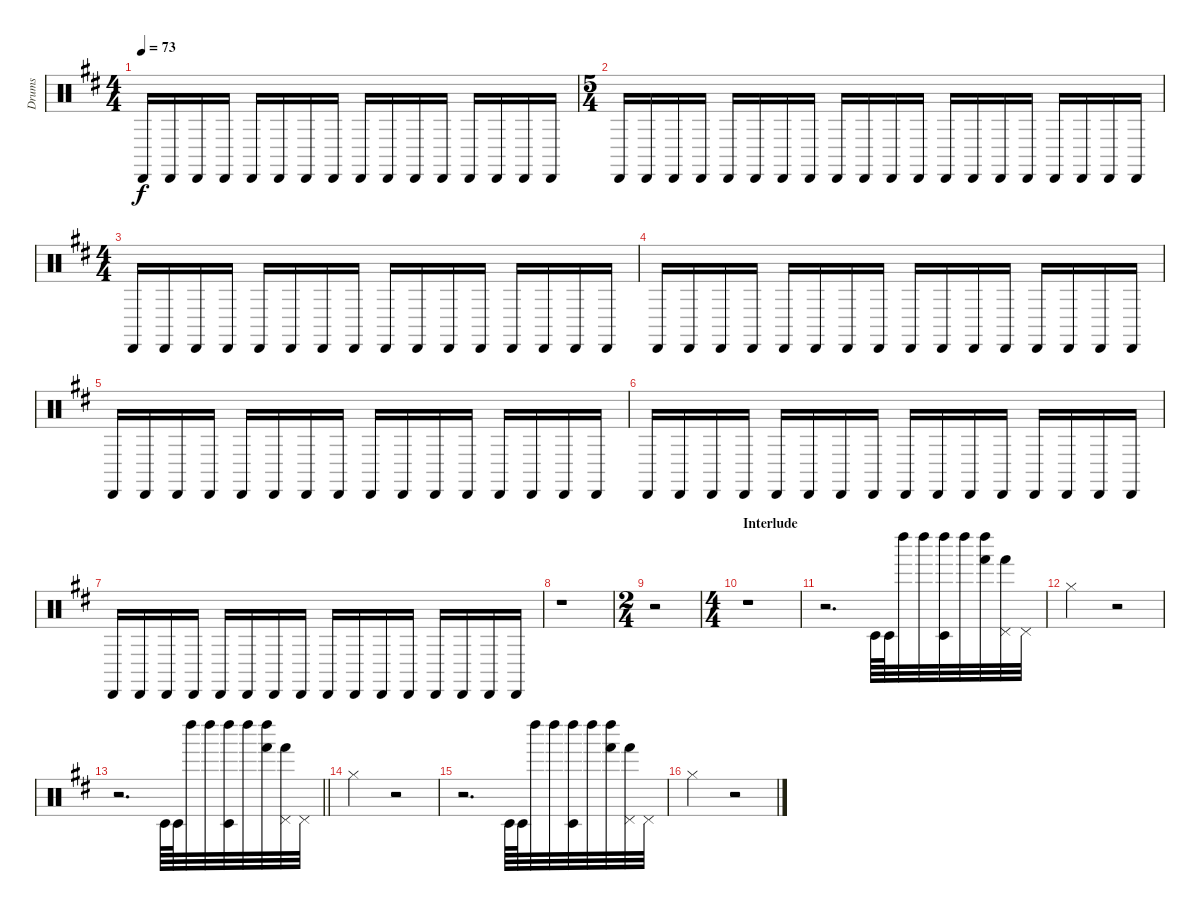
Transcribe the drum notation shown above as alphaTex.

\track ("Drums" "Drums") {instrument percussion}
\staff {score}
\articulation defaults
\ts (4 4)
\tempo 73
\clef neutral
\ks d "Cabasa (hit)".16{dy f} "Cabasa (hit)".16 "Cabasa (hit)".16 "Cabasa (hit)".16 "Cabasa (hit)".16 "Cabasa (hit)".16 "Cabasa (hit)".16 "Cabasa (hit)".16 "Cabasa (hit)".16 "Cabasa (hit)".16 "Cabasa (hit)".16 "Cabasa (hit)".16 "Cabasa (hit)".16 "Cabasa (hit)".16 "Cabasa (hit)".16 "Cabasa (hit)".16
|
\ts (5 4)
"Cabasa (hit)".16 "Cabasa (hit)".16 "Cabasa (hit)".16 "Cabasa (hit)".16 "Cabasa (hit)".16 "Cabasa (hit)".16 "Cabasa (hit)".16 "Cabasa (hit)".16 "Cabasa (hit)".16 "Cabasa (hit)".16 "Cabasa (hit)".16 "Cabasa (hit)".16 "Cabasa (hit)".16 "Cabasa (hit)".16 "Cabasa (hit)".16 "Cabasa (hit)".16 "Cabasa (hit)".16 "Cabasa (hit)".16 "Cabasa (hit)".16 "Cabasa (hit)".16 |
\ts (4 4)
"Cabasa (hit)".16 "Cabasa (hit)".16 "Cabasa (hit)".16 "Cabasa (hit)".16 "Cabasa (hit)".16 "Cabasa (hit)".16 "Cabasa (hit)".16 "Cabasa (hit)".16 "Cabasa (hit)".16 "Cabasa (hit)".16 "Cabasa (hit)".16 "Cabasa (hit)".16 "Cabasa (hit)".16 "Cabasa (hit)".16 "Cabasa (hit)".16 "Cabasa (hit)".16 |
"Cabasa (hit)".16 "Cabasa (hit)".16 "Cabasa (hit)".16 "Cabasa (hit)".16 "Cabasa (hit)".16 "Cabasa (hit)".16 "Cabasa (hit)".16 "Cabasa (hit)".16 "Cabasa (hit)".16 "Cabasa (hit)".16 "Cabasa (hit)".16 "Cabasa (hit)".16 "Cabasa (hit)".16 "Cabasa (hit)".16 "Cabasa (hit)".16 "Cabasa (hit)".16 |
"Cabasa (hit)".16 "Cabasa (hit)".16 "Cabasa (hit)".16 "Cabasa (hit)".16 "Cabasa (hit)".16 "Cabasa (hit)".16 "Cabasa (hit)".16 "Cabasa (hit)".16 "Cabasa (hit)".16 "Cabasa (hit)".16 "Cabasa (hit)".16 "Cabasa (hit)".16 "Cabasa (hit)".16 "Cabasa (hit)".16 "Cabasa (hit)".16 "Cabasa (hit)".16 |
"Cabasa (hit)".16 "Cabasa (hit)".16 "Cabasa (hit)".16 "Cabasa (hit)".16 "Cabasa (hit)".16 "Cabasa (hit)".16 "Cabasa (hit)".16 "Cabasa (hit)".16 "Cabasa (hit)".16 "Cabasa (hit)".16 "Cabasa (hit)".16 "Cabasa (hit)".16 "Cabasa (hit)".16 "Cabasa (hit)".16 "Cabasa (hit)".16 "Cabasa (hit)".16 |
"Cabasa (hit)".16 "Cabasa (hit)".16 "Cabasa (hit)".16 "Cabasa (hit)".16 "Cabasa (hit)".16 "Cabasa (hit)".16 "Cabasa (hit)".16 "Cabasa (hit)".16 "Cabasa (hit)".16 "Cabasa (hit)".16 "Cabasa (hit)".16 "Cabasa (hit)".16 "Cabasa (hit)".16 "Cabasa (hit)".16 "Cabasa (hit)".16 "Cabasa (hit)".16 |
r.1 |
\ts (2 4)
r.2 |
\ts (4 4)
\section ("" "Interlude")
r.1 |
r.2{d} "Timbale low (hit)".64 "Timbale low (hit)".64 "Left Maraca (hit)".32 "Left Maraca (hit)".32 ("Timbale low (hit)" "Left Maraca (hit)").32 "Left Maraca (hit)".32 ("Hand (hit)" "Left Maraca (hit)").32 ("Pedal Hi-Hat (hit)" "Hand (hit)").32 "Pedal Hi-Hat (hit)".32 |
"Hi-Hat (closed)".2 r.2 |
\barLineRight lightlight
r.2{d} "Timbale low (hit)".64 "Timbale low (hit)".64 "Left Maraca (hit)".32 "Left Maraca (hit)".32 ("Timbale low (hit)" "Left Maraca (hit)").32 "Left Maraca (hit)".32 ("Hand (hit)" "Left Maraca (hit)").32 ("Pedal Hi-Hat (hit)" "Hand (hit)").32 "Pedal Hi-Hat (hit)".32 |
"Hi-Hat (closed)".2 r.2 |
r.2{d} "Timbale low (hit)".64 "Timbale low (hit)".64 "Left Maraca (hit)".32 "Left Maraca (hit)".32 ("Timbale low (hit)" "Left Maraca (hit)").32 "Left Maraca (hit)".32 ("Hand (hit)" "Left Maraca (hit)").32 ("Pedal Hi-Hat (hit)" "Hand (hit)").32 "Pedal Hi-Hat (hit)".32 |
"Hi-Hat (closed)".2 r.2
